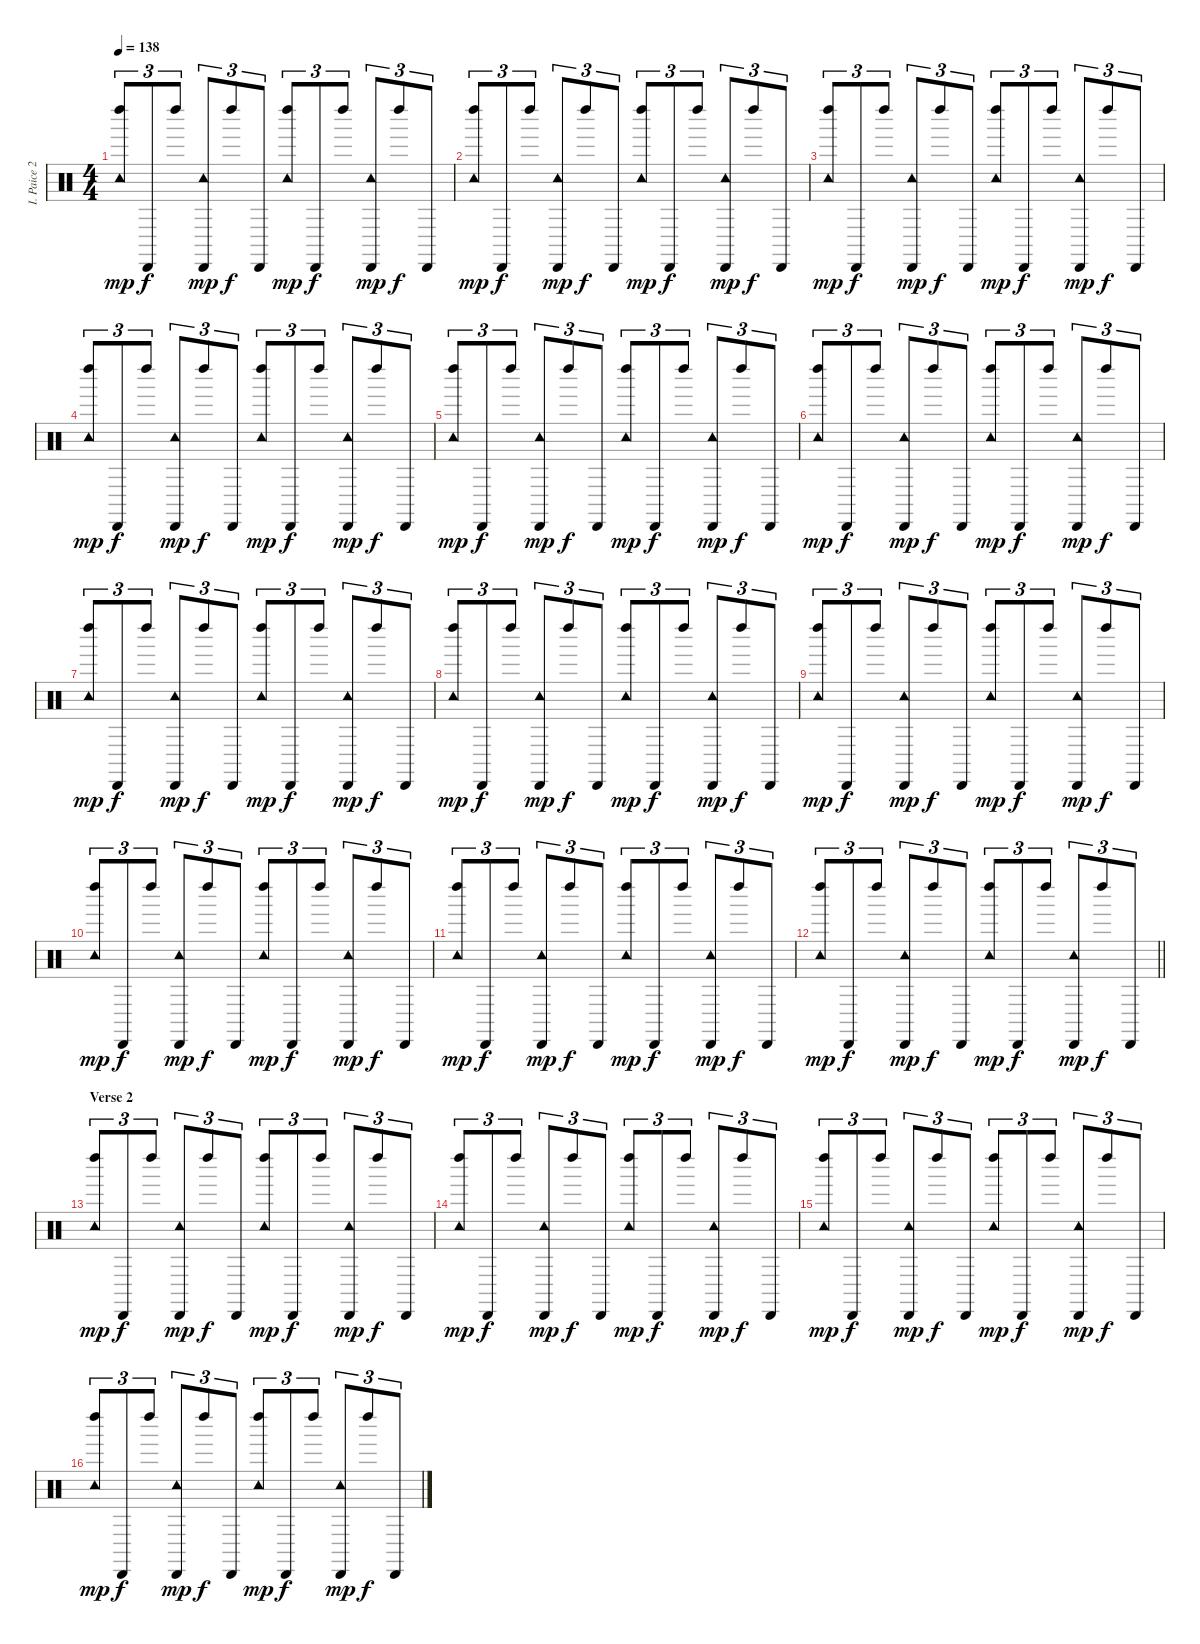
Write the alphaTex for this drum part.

\track ("I. Paice 2" "I. Paice 2") {instrument percussion}
\staff {score}
\articulation defaults
\ts (4 4)
\tempo 138
\clef neutral
\ks c
("Tambourine (hit)" "Left Maraca (hit)").8{tu (3 2) dy mp} "Cabasa (hit)".8{tu (3 2) dy f} "Left Maraca (hit)".8{tu (3 2)} ("Tambourine (hit)" "Cabasa (hit)").8{tu (3 2) dy mp} "Left Maraca (hit)".8{tu (3 2) dy f} "Cabasa (hit)".8{tu (3 2)} ("Tambourine (hit)" "Left Maraca (hit)").8{tu (3 2) dy mp} "Cabasa (hit)".8{tu (3 2) dy f} "Left Maraca (hit)".8{tu (3 2)} ("Tambourine (hit)" "Cabasa (hit)").8{tu (3 2) dy mp} "Left Maraca (hit)".8{tu (3 2) dy f} "Cabasa (hit)".8{tu (3 2)} |
("Tambourine (hit)" "Left Maraca (hit)").8{tu (3 2) dy mp} "Cabasa (hit)".8{tu (3 2) dy f} "Left Maraca (hit)".8{tu (3 2)} ("Tambourine (hit)" "Cabasa (hit)").8{tu (3 2) dy mp} "Left Maraca (hit)".8{tu (3 2) dy f} "Cabasa (hit)".8{tu (3 2)} ("Tambourine (hit)" "Left Maraca (hit)").8{tu (3 2) dy mp} "Cabasa (hit)".8{tu (3 2) dy f} "Left Maraca (hit)".8{tu (3 2)} ("Tambourine (hit)" "Cabasa (hit)").8{tu (3 2) dy mp} "Left Maraca (hit)".8{tu (3 2) dy f} "Cabasa (hit)".8{tu (3 2)} |
("Tambourine (hit)" "Left Maraca (hit)").8{tu (3 2) dy mp} "Cabasa (hit)".8{tu (3 2) dy f} "Left Maraca (hit)".8{tu (3 2)} ("Tambourine (hit)" "Cabasa (hit)").8{tu (3 2) dy mp} "Left Maraca (hit)".8{tu (3 2) dy f} "Cabasa (hit)".8{tu (3 2)} ("Tambourine (hit)" "Left Maraca (hit)").8{tu (3 2) dy mp} "Cabasa (hit)".8{tu (3 2) dy f} "Left Maraca (hit)".8{tu (3 2)} ("Tambourine (hit)" "Cabasa (hit)").8{tu (3 2) dy mp} "Left Maraca (hit)".8{tu (3 2) dy f} "Cabasa (hit)".8{tu (3 2)} |
("Tambourine (hit)" "Left Maraca (hit)").8{tu (3 2) dy mp} "Cabasa (hit)".8{tu (3 2) dy f} "Left Maraca (hit)".8{tu (3 2)} ("Tambourine (hit)" "Cabasa (hit)").8{tu (3 2) dy mp} "Left Maraca (hit)".8{tu (3 2) dy f} "Cabasa (hit)".8{tu (3 2)} ("Tambourine (hit)" "Left Maraca (hit)").8{tu (3 2) dy mp} "Cabasa (hit)".8{tu (3 2) dy f} "Left Maraca (hit)".8{tu (3 2)} ("Tambourine (hit)" "Cabasa (hit)").8{tu (3 2) dy mp} "Left Maraca (hit)".8{tu (3 2) dy f} "Cabasa (hit)".8{tu (3 2)} |
("Tambourine (hit)" "Left Maraca (hit)").8{tu (3 2) dy mp} "Cabasa (hit)".8{tu (3 2) dy f} "Left Maraca (hit)".8{tu (3 2)} ("Tambourine (hit)" "Cabasa (hit)").8{tu (3 2) dy mp} "Left Maraca (hit)".8{tu (3 2) dy f} "Cabasa (hit)".8{tu (3 2)} ("Tambourine (hit)" "Left Maraca (hit)").8{tu (3 2) dy mp} "Cabasa (hit)".8{tu (3 2) dy f} "Left Maraca (hit)".8{tu (3 2)} ("Tambourine (hit)" "Cabasa (hit)").8{tu (3 2) dy mp} "Left Maraca (hit)".8{tu (3 2) dy f} "Cabasa (hit)".8{tu (3 2)} |
("Tambourine (hit)" "Left Maraca (hit)").8{tu (3 2) dy mp} "Cabasa (hit)".8{tu (3 2) dy f} "Left Maraca (hit)".8{tu (3 2)} ("Tambourine (hit)" "Cabasa (hit)").8{tu (3 2) dy mp} "Left Maraca (hit)".8{tu (3 2) dy f} "Cabasa (hit)".8{tu (3 2)} ("Tambourine (hit)" "Left Maraca (hit)").8{tu (3 2) dy mp} "Cabasa (hit)".8{tu (3 2) dy f} "Left Maraca (hit)".8{tu (3 2)} ("Tambourine (hit)" "Cabasa (hit)").8{tu (3 2) dy mp} "Left Maraca (hit)".8{tu (3 2) dy f} "Cabasa (hit)".8{tu (3 2)} |
("Tambourine (hit)" "Left Maraca (hit)").8{tu (3 2) dy mp} "Cabasa (hit)".8{tu (3 2) dy f} "Left Maraca (hit)".8{tu (3 2)} ("Tambourine (hit)" "Cabasa (hit)").8{tu (3 2) dy mp} "Left Maraca (hit)".8{tu (3 2) dy f} "Cabasa (hit)".8{tu (3 2)} ("Tambourine (hit)" "Left Maraca (hit)").8{tu (3 2) dy mp} "Cabasa (hit)".8{tu (3 2) dy f} "Left Maraca (hit)".8{tu (3 2)} ("Tambourine (hit)" "Cabasa (hit)").8{tu (3 2) dy mp} "Left Maraca (hit)".8{tu (3 2) dy f} "Cabasa (hit)".8{tu (3 2)} |
("Tambourine (hit)" "Left Maraca (hit)").8{tu (3 2) dy mp} "Cabasa (hit)".8{tu (3 2) dy f} "Left Maraca (hit)".8{tu (3 2)} ("Tambourine (hit)" "Cabasa (hit)").8{tu (3 2) dy mp} "Left Maraca (hit)".8{tu (3 2) dy f} "Cabasa (hit)".8{tu (3 2)} ("Tambourine (hit)" "Left Maraca (hit)").8{tu (3 2) dy mp} "Cabasa (hit)".8{tu (3 2) dy f} "Left Maraca (hit)".8{tu (3 2)} ("Tambourine (hit)" "Cabasa (hit)").8{tu (3 2) dy mp} "Left Maraca (hit)".8{tu (3 2) dy f} "Cabasa (hit)".8{tu (3 2)} |
("Tambourine (hit)" "Left Maraca (hit)").8{tu (3 2) dy mp} "Cabasa (hit)".8{tu (3 2) dy f} "Left Maraca (hit)".8{tu (3 2)} ("Tambourine (hit)" "Cabasa (hit)").8{tu (3 2) dy mp} "Left Maraca (hit)".8{tu (3 2) dy f} "Cabasa (hit)".8{tu (3 2)} ("Tambourine (hit)" "Left Maraca (hit)").8{tu (3 2) dy mp} "Cabasa (hit)".8{tu (3 2) dy f} "Left Maraca (hit)".8{tu (3 2)} ("Tambourine (hit)" "Cabasa (hit)").8{tu (3 2) dy mp} "Left Maraca (hit)".8{tu (3 2) dy f} "Cabasa (hit)".8{tu (3 2)} |
("Tambourine (hit)" "Left Maraca (hit)").8{tu (3 2) dy mp} "Cabasa (hit)".8{tu (3 2) dy f} "Left Maraca (hit)".8{tu (3 2)} ("Tambourine (hit)" "Cabasa (hit)").8{tu (3 2) dy mp} "Left Maraca (hit)".8{tu (3 2) dy f} "Cabasa (hit)".8{tu (3 2)} ("Tambourine (hit)" "Left Maraca (hit)").8{tu (3 2) dy mp} "Cabasa (hit)".8{tu (3 2) dy f} "Left Maraca (hit)".8{tu (3 2)} ("Tambourine (hit)" "Cabasa (hit)").8{tu (3 2) dy mp} "Left Maraca (hit)".8{tu (3 2) dy f} "Cabasa (hit)".8{tu (3 2)} |
("Tambourine (hit)" "Left Maraca (hit)").8{tu (3 2) dy mp} "Cabasa (hit)".8{tu (3 2) dy f} "Left Maraca (hit)".8{tu (3 2)} ("Tambourine (hit)" "Cabasa (hit)").8{tu (3 2) dy mp} "Left Maraca (hit)".8{tu (3 2) dy f} "Cabasa (hit)".8{tu (3 2)} ("Tambourine (hit)" "Left Maraca (hit)").8{tu (3 2) dy mp} "Cabasa (hit)".8{tu (3 2) dy f} "Left Maraca (hit)".8{tu (3 2)} ("Tambourine (hit)" "Cabasa (hit)").8{tu (3 2) dy mp} "Left Maraca (hit)".8{tu (3 2) dy f} "Cabasa (hit)".8{tu (3 2)} |
\barLineRight lightlight
("Tambourine (hit)" "Left Maraca (hit)").8{tu (3 2) dy mp} "Cabasa (hit)".8{tu (3 2) dy f} "Left Maraca (hit)".8{tu (3 2)} ("Tambourine (hit)" "Cabasa (hit)").8{tu (3 2) dy mp} "Left Maraca (hit)".8{tu (3 2) dy f} "Cabasa (hit)".8{tu (3 2)} ("Tambourine (hit)" "Left Maraca (hit)").8{tu (3 2) dy mp} "Cabasa (hit)".8{tu (3 2) dy f} "Left Maraca (hit)".8{tu (3 2)} ("Tambourine (hit)" "Cabasa (hit)").8{tu (3 2) dy mp} "Left Maraca (hit)".8{tu (3 2) dy f} "Cabasa (hit)".8{tu (3 2)} |
\section ("" "Verse 2")
("Tambourine (hit)" "Left Maraca (hit)").8{tu (3 2) dy mp} "Cabasa (hit)".8{tu (3 2) dy f} "Left Maraca (hit)".8{tu (3 2)} ("Tambourine (hit)" "Cabasa (hit)").8{tu (3 2) dy mp} "Left Maraca (hit)".8{tu (3 2) dy f} "Cabasa (hit)".8{tu (3 2)} ("Tambourine (hit)" "Left Maraca (hit)").8{tu (3 2) dy mp} "Cabasa (hit)".8{tu (3 2) dy f} "Left Maraca (hit)".8{tu (3 2)} ("Tambourine (hit)" "Cabasa (hit)").8{tu (3 2) dy mp} "Left Maraca (hit)".8{tu (3 2) dy f} "Cabasa (hit)".8{tu (3 2)} |
("Tambourine (hit)" "Left Maraca (hit)").8{tu (3 2) dy mp} "Cabasa (hit)".8{tu (3 2) dy f} "Left Maraca (hit)".8{tu (3 2)} ("Tambourine (hit)" "Cabasa (hit)").8{tu (3 2) dy mp} "Left Maraca (hit)".8{tu (3 2) dy f} "Cabasa (hit)".8{tu (3 2)} ("Tambourine (hit)" "Left Maraca (hit)").8{tu (3 2) dy mp} "Cabasa (hit)".8{tu (3 2) dy f} "Left Maraca (hit)".8{tu (3 2)} ("Tambourine (hit)" "Cabasa (hit)").8{tu (3 2) dy mp} "Left Maraca (hit)".8{tu (3 2) dy f} "Cabasa (hit)".8{tu (3 2)} |
("Tambourine (hit)" "Left Maraca (hit)").8{tu (3 2) dy mp} "Cabasa (hit)".8{tu (3 2) dy f} "Left Maraca (hit)".8{tu (3 2)} ("Tambourine (hit)" "Cabasa (hit)").8{tu (3 2) dy mp} "Left Maraca (hit)".8{tu (3 2) dy f} "Cabasa (hit)".8{tu (3 2)} ("Tambourine (hit)" "Left Maraca (hit)").8{tu (3 2) dy mp} "Cabasa (hit)".8{tu (3 2) dy f} "Left Maraca (hit)".8{tu (3 2)} ("Tambourine (hit)" "Cabasa (hit)").8{tu (3 2) dy mp} "Left Maraca (hit)".8{tu (3 2) dy f} "Cabasa (hit)".8{tu (3 2)} |
("Tambourine (hit)" "Left Maraca (hit)").8{tu (3 2) dy mp} "Cabasa (hit)".8{tu (3 2) dy f} "Left Maraca (hit)".8{tu (3 2)} ("Tambourine (hit)" "Cabasa (hit)").8{tu (3 2) dy mp} "Left Maraca (hit)".8{tu (3 2) dy f} "Cabasa (hit)".8{tu (3 2)} ("Tambourine (hit)" "Left Maraca (hit)").8{tu (3 2) dy mp} "Cabasa (hit)".8{tu (3 2) dy f} "Left Maraca (hit)".8{tu (3 2)} ("Tambourine (hit)" "Cabasa (hit)").8{tu (3 2) dy mp} "Left Maraca (hit)".8{tu (3 2) dy f} "Cabasa (hit)".8{tu (3 2)}
